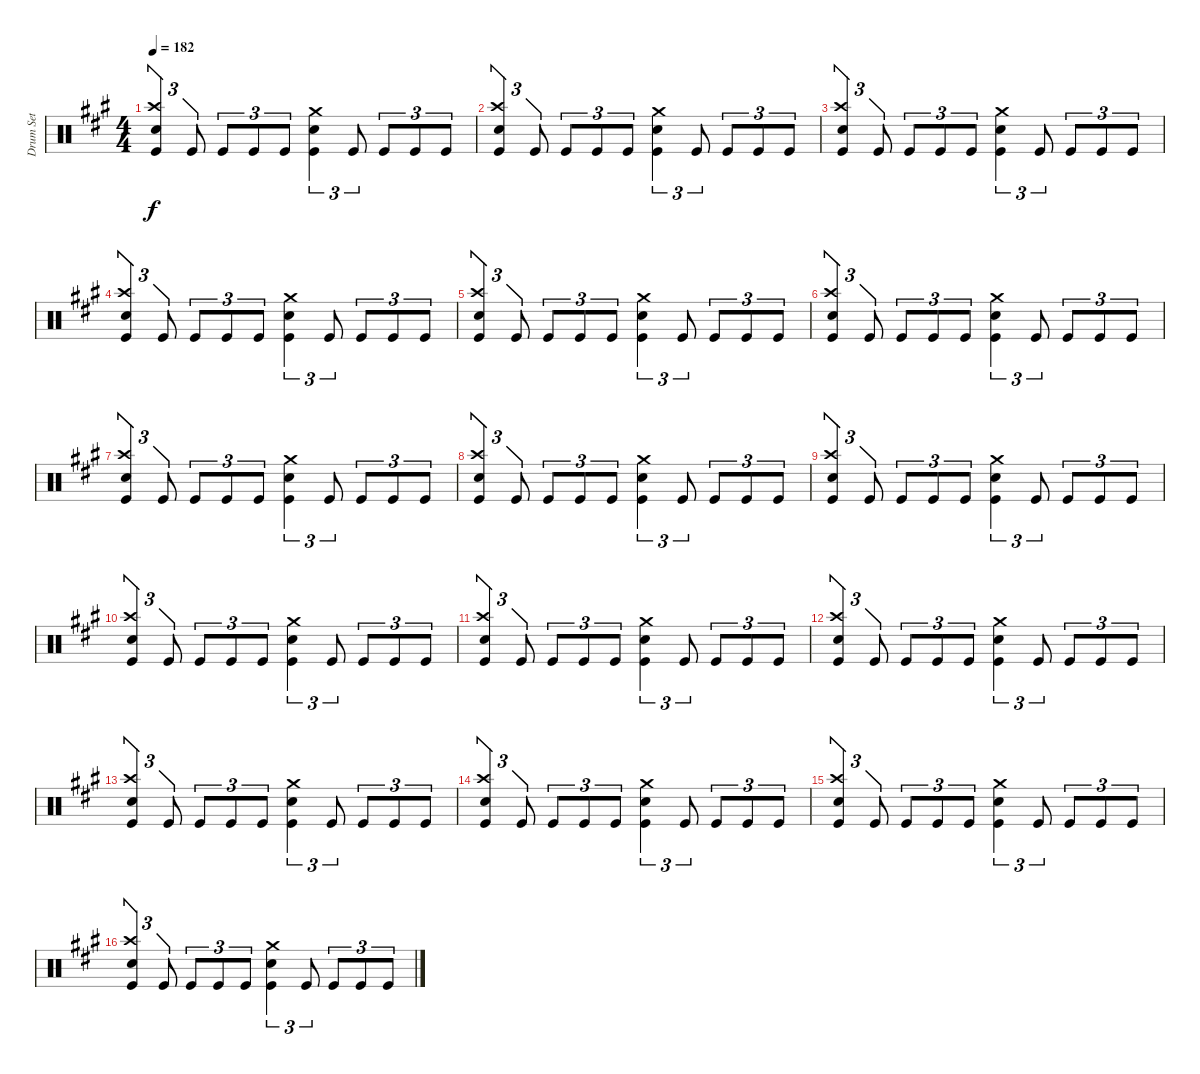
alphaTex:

\track ("Drum Set" "Drum Set") {instrument percussion}
\staff {score}
\articulation defaults
\ts (4 4)
\tempo 182
\clef neutral
\ks a
("Electric Snare (hit)" "Crash high (hit)" "Kick (hit)").4{tu (3 2) dy f} "Kick (hit)".8{tu (3 2)} "Kick (hit)".8{tu (3 2)} "Kick (hit)".8{tu (3 2)} "Kick (hit)".8{tu (3 2)} ("Electric Snare (hit)" "Crash medium (hit)" "Kick (hit)").4{tu (3 2)} "Kick (hit)".8{tu (3 2)} "Kick (hit)".8{tu (3 2)} "Kick (hit)".8{tu (3 2)} "Kick (hit)".8{tu (3 2)} |
("Electric Snare (hit)" "Crash high (hit)" "Kick (hit)").4{tu (3 2)} "Kick (hit)".8{tu (3 2)} "Kick (hit)".8{tu (3 2)} "Kick (hit)".8{tu (3 2)} "Kick (hit)".8{tu (3 2)} ("Electric Snare (hit)" "Crash medium (hit)" "Kick (hit)").4{tu (3 2)} "Kick (hit)".8{tu (3 2)} "Kick (hit)".8{tu (3 2)} "Kick (hit)".8{tu (3 2)} "Kick (hit)".8{tu (3 2)} |
("Electric Snare (hit)" "Crash high (hit)" "Kick (hit)").4{tu (3 2)} "Kick (hit)".8{tu (3 2)} "Kick (hit)".8{tu (3 2)} "Kick (hit)".8{tu (3 2)} "Kick (hit)".8{tu (3 2)} ("Electric Snare (hit)" "Crash medium (hit)" "Kick (hit)").4{tu (3 2)} "Kick (hit)".8{tu (3 2)} "Kick (hit)".8{tu (3 2)} "Kick (hit)".8{tu (3 2)} "Kick (hit)".8{tu (3 2)} |
("Electric Snare (hit)" "Crash high (hit)" "Kick (hit)").4{tu (3 2)} "Kick (hit)".8{tu (3 2)} "Kick (hit)".8{tu (3 2)} "Kick (hit)".8{tu (3 2)} "Kick (hit)".8{tu (3 2)} ("Electric Snare (hit)" "Crash medium (hit)" "Kick (hit)").4{tu (3 2)} "Kick (hit)".8{tu (3 2)} "Kick (hit)".8{tu (3 2)} "Kick (hit)".8{tu (3 2)} "Kick (hit)".8{tu (3 2)} |
("Electric Snare (hit)" "Crash high (hit)" "Kick (hit)").4{tu (3 2)} "Kick (hit)".8{tu (3 2)} "Kick (hit)".8{tu (3 2)} "Kick (hit)".8{tu (3 2)} "Kick (hit)".8{tu (3 2)} ("Electric Snare (hit)" "Crash medium (hit)" "Kick (hit)").4{tu (3 2)} "Kick (hit)".8{tu (3 2)} "Kick (hit)".8{tu (3 2)} "Kick (hit)".8{tu (3 2)} "Kick (hit)".8{tu (3 2)} |
("Electric Snare (hit)" "Crash high (hit)" "Kick (hit)").4{tu (3 2)} "Kick (hit)".8{tu (3 2)} "Kick (hit)".8{tu (3 2)} "Kick (hit)".8{tu (3 2)} "Kick (hit)".8{tu (3 2)} ("Electric Snare (hit)" "Crash medium (hit)" "Kick (hit)").4{tu (3 2)} "Kick (hit)".8{tu (3 2)} "Kick (hit)".8{tu (3 2)} "Kick (hit)".8{tu (3 2)} "Kick (hit)".8{tu (3 2)} |
("Electric Snare (hit)" "Crash high (hit)" "Kick (hit)").4{tu (3 2)} "Kick (hit)".8{tu (3 2)} "Kick (hit)".8{tu (3 2)} "Kick (hit)".8{tu (3 2)} "Kick (hit)".8{tu (3 2)} ("Electric Snare (hit)" "Crash medium (hit)" "Kick (hit)").4{tu (3 2)} "Kick (hit)".8{tu (3 2)} "Kick (hit)".8{tu (3 2)} "Kick (hit)".8{tu (3 2)} "Kick (hit)".8{tu (3 2)} |
("Electric Snare (hit)" "Crash high (hit)" "Kick (hit)").4{tu (3 2)} "Kick (hit)".8{tu (3 2)} "Kick (hit)".8{tu (3 2)} "Kick (hit)".8{tu (3 2)} "Kick (hit)".8{tu (3 2)} ("Electric Snare (hit)" "Crash medium (hit)" "Kick (hit)").4{tu (3 2)} "Kick (hit)".8{tu (3 2)} "Kick (hit)".8{tu (3 2)} "Kick (hit)".8{tu (3 2)} "Kick (hit)".8{tu (3 2)} |
("Electric Snare (hit)" "Crash high (hit)" "Kick (hit)").4{tu (3 2)} "Kick (hit)".8{tu (3 2)} "Kick (hit)".8{tu (3 2)} "Kick (hit)".8{tu (3 2)} "Kick (hit)".8{tu (3 2)} ("Electric Snare (hit)" "Crash medium (hit)" "Kick (hit)").4{tu (3 2)} "Kick (hit)".8{tu (3 2)} "Kick (hit)".8{tu (3 2)} "Kick (hit)".8{tu (3 2)} "Kick (hit)".8{tu (3 2)} |
("Electric Snare (hit)" "Crash high (hit)" "Kick (hit)").4{tu (3 2)} "Kick (hit)".8{tu (3 2)} "Kick (hit)".8{tu (3 2)} "Kick (hit)".8{tu (3 2)} "Kick (hit)".8{tu (3 2)} ("Electric Snare (hit)" "Crash medium (hit)" "Kick (hit)").4{tu (3 2)} "Kick (hit)".8{tu (3 2)} "Kick (hit)".8{tu (3 2)} "Kick (hit)".8{tu (3 2)} "Kick (hit)".8{tu (3 2)} |
("Electric Snare (hit)" "Crash high (hit)" "Kick (hit)").4{tu (3 2)} "Kick (hit)".8{tu (3 2)} "Kick (hit)".8{tu (3 2)} "Kick (hit)".8{tu (3 2)} "Kick (hit)".8{tu (3 2)} ("Electric Snare (hit)" "Crash medium (hit)" "Kick (hit)").4{tu (3 2)} "Kick (hit)".8{tu (3 2)} "Kick (hit)".8{tu (3 2)} "Kick (hit)".8{tu (3 2)} "Kick (hit)".8{tu (3 2)} |
("Electric Snare (hit)" "Crash high (hit)" "Kick (hit)").4{tu (3 2)} "Kick (hit)".8{tu (3 2)} "Kick (hit)".8{tu (3 2)} "Kick (hit)".8{tu (3 2)} "Kick (hit)".8{tu (3 2)} ("Electric Snare (hit)" "Crash medium (hit)" "Kick (hit)").4{tu (3 2)} "Kick (hit)".8{tu (3 2)} "Kick (hit)".8{tu (3 2)} "Kick (hit)".8{tu (3 2)} "Kick (hit)".8{tu (3 2)} |
("Electric Snare (hit)" "Crash high (hit)" "Kick (hit)").4{tu (3 2)} "Kick (hit)".8{tu (3 2)} "Kick (hit)".8{tu (3 2)} "Kick (hit)".8{tu (3 2)} "Kick (hit)".8{tu (3 2)} ("Electric Snare (hit)" "Crash medium (hit)" "Kick (hit)").4{tu (3 2)} "Kick (hit)".8{tu (3 2)} "Kick (hit)".8{tu (3 2)} "Kick (hit)".8{tu (3 2)} "Kick (hit)".8{tu (3 2)} |
("Electric Snare (hit)" "Crash high (hit)" "Kick (hit)").4{tu (3 2)} "Kick (hit)".8{tu (3 2)} "Kick (hit)".8{tu (3 2)} "Kick (hit)".8{tu (3 2)} "Kick (hit)".8{tu (3 2)} ("Electric Snare (hit)" "Crash medium (hit)" "Kick (hit)").4{tu (3 2)} "Kick (hit)".8{tu (3 2)} "Kick (hit)".8{tu (3 2)} "Kick (hit)".8{tu (3 2)} "Kick (hit)".8{tu (3 2)} |
("Electric Snare (hit)" "Crash high (hit)" "Kick (hit)").4{tu (3 2)} "Kick (hit)".8{tu (3 2)} "Kick (hit)".8{tu (3 2)} "Kick (hit)".8{tu (3 2)} "Kick (hit)".8{tu (3 2)} ("Electric Snare (hit)" "Crash medium (hit)" "Kick (hit)").4{tu (3 2)} "Kick (hit)".8{tu (3 2)} "Kick (hit)".8{tu (3 2)} "Kick (hit)".8{tu (3 2)} "Kick (hit)".8{tu (3 2)} |
("Electric Snare (hit)" "Crash high (hit)" "Kick (hit)").4{tu (3 2)} "Kick (hit)".8{tu (3 2)} "Kick (hit)".8{tu (3 2)} "Kick (hit)".8{tu (3 2)} "Kick (hit)".8{tu (3 2)} ("Electric Snare (hit)" "Crash medium (hit)" "Kick (hit)").4{tu (3 2)} "Kick (hit)".8{tu (3 2)} "Kick (hit)".8{tu (3 2)} "Kick (hit)".8{tu (3 2)} "Kick (hit)".8{tu (3 2)}
